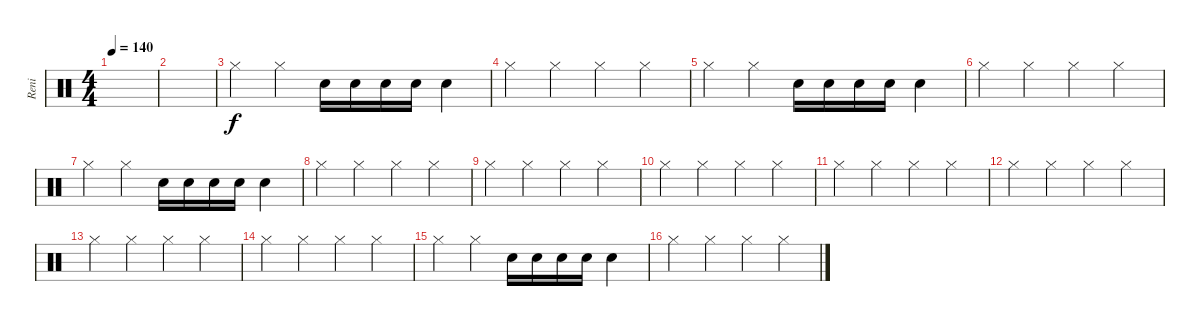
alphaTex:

\track ("Reni" "Reni") {instrument percussion}
\staff {score}
\articulation defaults
\ts (4 4)
\tempo 140
\clef neutral
\ks c
|
|
"Hi-Hat (closed)".4{balance 14} "Hi-Hat (closed)".4 "Snare (hit) 2".16 "Snare (hit) 2".16 "Snare (hit) 2".16 "Snare (hit) 2".16 "Snare (hit) 2".4 |
"Hi-Hat (closed)".4 "Hi-Hat (closed)".4 "Hi-Hat (closed)".4 "Hi-Hat (closed)".4 |
"Hi-Hat (closed)".4{balance 14} "Hi-Hat (closed)".4 "Snare (hit) 2".16 "Snare (hit) 2".16 "Snare (hit) 2".16 "Snare (hit) 2".16 "Snare (hit) 2".4 |
"Hi-Hat (closed)".4 "Hi-Hat (closed)".4 "Hi-Hat (closed)".4 "Hi-Hat (closed)".4 |
"Hi-Hat (closed)".4{balance 14} "Hi-Hat (closed)".4 "Snare (hit) 2".16 "Snare (hit) 2".16 "Snare (hit) 2".16 "Snare (hit) 2".16 "Snare (hit) 2".4 |
"Hi-Hat (closed)".4 "Hi-Hat (closed)".4 "Hi-Hat (closed)".4 "Hi-Hat (closed)".4 |
"Hi-Hat (closed)".4 "Hi-Hat (closed)".4 "Hi-Hat (closed)".4 "Hi-Hat (closed)".4 |
"Hi-Hat (closed)".4 "Hi-Hat (closed)".4 "Hi-Hat (closed)".4 "Hi-Hat (closed)".4 |
"Hi-Hat (closed)".4 "Hi-Hat (closed)".4 "Hi-Hat (closed)".4 "Hi-Hat (closed)".4 |
"Hi-Hat (closed)".4 "Hi-Hat (closed)".4 "Hi-Hat (closed)".4 "Hi-Hat (closed)".4 |
"Hi-Hat (closed)".4 "Hi-Hat (closed)".4 "Hi-Hat (closed)".4 "Hi-Hat (closed)".4 |
"Hi-Hat (closed)".4 "Hi-Hat (closed)".4 "Hi-Hat (closed)".4 "Hi-Hat (closed)".4 |
"Hi-Hat (closed)".4{balance 14} "Hi-Hat (closed)".4 "Snare (hit) 2".16 "Snare (hit) 2".16 "Snare (hit) 2".16 "Snare (hit) 2".16 "Snare (hit) 2".4 |
"Hi-Hat (closed)".4 "Hi-Hat (closed)".4 "Hi-Hat (closed)".4 "Hi-Hat (closed)".4
